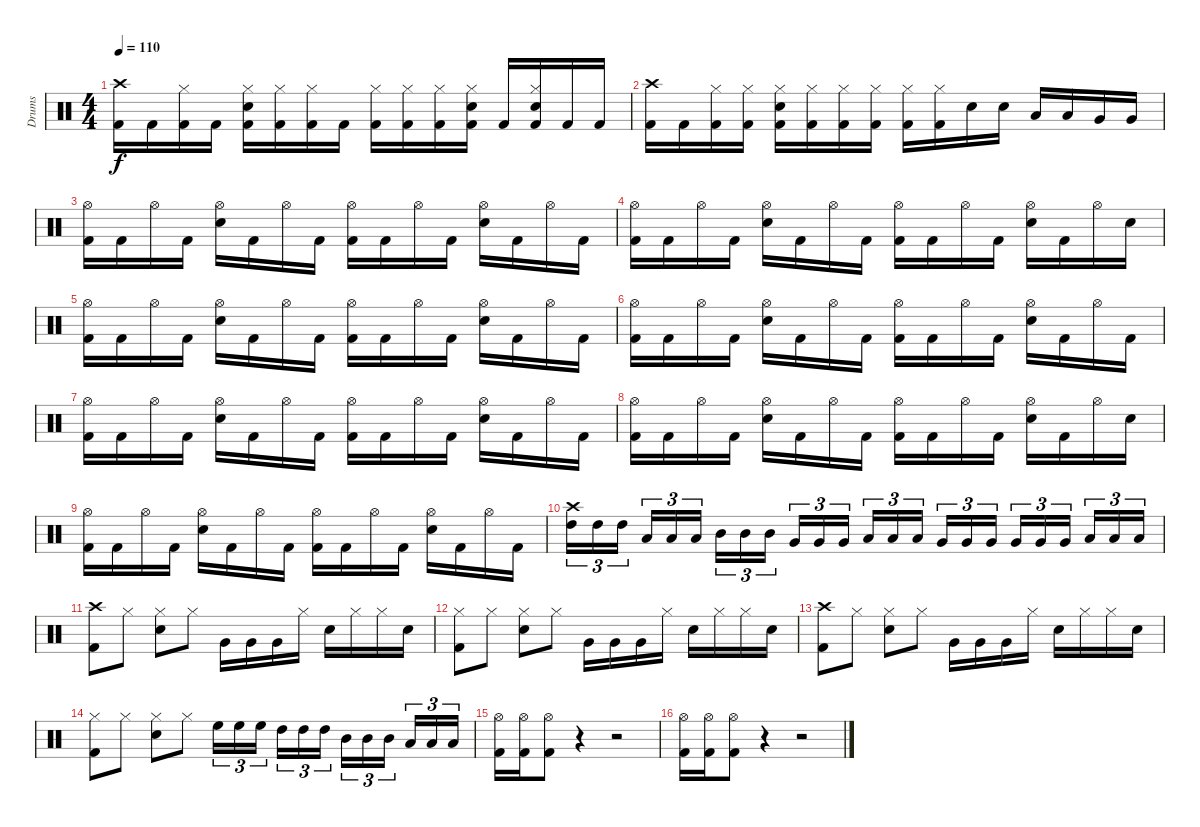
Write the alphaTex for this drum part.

\track ("Drums" "Drums") {instrument percussion}
\staff {score}
\articulation defaults
\ts (4 4)
\tempo 110
\clef neutral
\ks c
("Crash high (hit)" "Kick (hit) 2").16{dy f} "Kick (hit) 2".16 ("Hi-Hat (closed)" "Kick (hit) 2").16 "Kick (hit) 2".16 ("Hi-Hat (closed)" "Electric Snare (hit)" "Kick (hit) 2").16 ("Hi-Hat (closed)" "Kick (hit) 2").16 ("Hi-Hat (closed)" "Kick (hit) 2").16 "Kick (hit) 2".16 ("Hi-Hat (closed)" "Kick (hit) 2").16 ("Hi-Hat (closed)" "Kick (hit) 2").16 ("Hi-Hat (closed)" "Kick (hit) 2").16 ("Hi-Hat (closed)" "Electric Snare (hit)" "Kick (hit) 2").16 "Kick (hit) 2".16 ("Hi-Hat (closed)" "Electric Snare (hit)" "Kick (hit) 2").16 "Kick (hit) 2".16 "Kick (hit) 2".16 |
("Crash high (hit)" "Kick (hit) 2").16 "Kick (hit) 2".16 ("Hi-Hat (closed)" "Kick (hit) 2").16 ("Hi-Hat (closed)" "Kick (hit) 2").16 ("Hi-Hat (closed)" "Electric Snare (hit)" "Kick (hit) 2").16 ("Hi-Hat (closed)" "Kick (hit) 2").16 ("Hi-Hat (closed)" "Kick (hit) 2").16 ("Hi-Hat (closed)" "Kick (hit) 2").16 ("Hi-Hat (closed)" "Kick (hit) 2").16 ("Hi-Hat (closed)" "Kick (hit) 2").16 "Electric Snare (hit)".16 "Electric Snare (hit)".16 "Low Tom (hit)".16 "Low Tom (hit)".16 "Very Low Tom (hit)".16 "Very Low Tom (hit)".16 |
("Hi-Hat (open)" "Kick (hit) 2").16 "Kick (hit) 2".16 "Hi-Hat (open)".16 "Kick (hit) 2".16 ("Hi-Hat (open)" "Electric Snare (hit)").16 "Kick (hit) 2".16 "Hi-Hat (open)".16 "Kick (hit) 2".16 ("Hi-Hat (open)" "Kick (hit) 2").16 "Kick (hit) 2".16 "Hi-Hat (open)".16 "Kick (hit) 2".16 ("Hi-Hat (open)" "Electric Snare (hit)").16 "Kick (hit) 2".16 "Hi-Hat (open)".16 "Kick (hit) 2".16 |
("Hi-Hat (open)" "Kick (hit) 2").16 "Kick (hit) 2".16 "Hi-Hat (open)".16 "Kick (hit) 2".16 ("Hi-Hat (open)" "Electric Snare (hit)").16 "Kick (hit) 2".16 "Hi-Hat (open)".16 "Kick (hit) 2".16 ("Hi-Hat (open)" "Kick (hit) 2").16 "Kick (hit) 2".16 "Hi-Hat (open)".16 "Kick (hit) 2".16 ("Hi-Hat (open)" "Electric Snare (hit)").16 "Kick (hit) 2".16 "Hi-Hat (open)".16 "Electric Snare (hit)".16 |
("Hi-Hat (open)" "Kick (hit) 2").16 "Kick (hit) 2".16 "Hi-Hat (open)".16 "Kick (hit) 2".16 ("Hi-Hat (open)" "Electric Snare (hit)").16 "Kick (hit) 2".16 "Hi-Hat (open)".16 "Kick (hit) 2".16 ("Hi-Hat (open)" "Kick (hit) 2").16 "Kick (hit) 2".16 "Hi-Hat (open)".16 "Kick (hit) 2".16 ("Hi-Hat (open)" "Electric Snare (hit)").16 "Kick (hit) 2".16 "Hi-Hat (open)".16 "Kick (hit) 2".16 |
("Hi-Hat (open)" "Kick (hit) 2").16 "Kick (hit) 2".16 "Hi-Hat (open)".16 "Kick (hit) 2".16 ("Hi-Hat (open)" "Electric Snare (hit)").16 "Kick (hit) 2".16 "Hi-Hat (open)".16 "Kick (hit) 2".16 ("Hi-Hat (open)" "Kick (hit) 2").16 "Kick (hit) 2".16 "Hi-Hat (open)".16 "Kick (hit) 2".16 ("Hi-Hat (open)" "Electric Snare (hit)").16 "Kick (hit) 2".16 "Hi-Hat (open)".16 "Kick (hit) 2".16 |
("Hi-Hat (open)" "Kick (hit) 2").16 "Kick (hit) 2".16 "Hi-Hat (open)".16 "Kick (hit) 2".16 ("Hi-Hat (open)" "Electric Snare (hit)").16 "Kick (hit) 2".16 "Hi-Hat (open)".16 "Kick (hit) 2".16 ("Hi-Hat (open)" "Kick (hit) 2").16 "Kick (hit) 2".16 "Hi-Hat (open)".16 "Kick (hit) 2".16 ("Hi-Hat (open)" "Electric Snare (hit)").16 "Kick (hit) 2".16 "Hi-Hat (open)".16 "Kick (hit) 2".16 |
("Hi-Hat (open)" "Kick (hit) 2").16 "Kick (hit) 2".16 "Hi-Hat (open)".16 "Kick (hit) 2".16 ("Hi-Hat (open)" "Electric Snare (hit)").16 "Kick (hit) 2".16 "Hi-Hat (open)".16 "Kick (hit) 2".16 ("Hi-Hat (open)" "Kick (hit) 2").16 "Kick (hit) 2".16 "Hi-Hat (open)".16 "Kick (hit) 2".16 ("Hi-Hat (open)" "Electric Snare (hit)").16 "Kick (hit) 2".16 "Hi-Hat (open)".16 "Electric Snare (hit)".16 |
("Hi-Hat (open)" "Kick (hit) 2").16 "Kick (hit) 2".16 "Hi-Hat (open)".16 "Kick (hit) 2".16 ("Hi-Hat (open)" "Electric Snare (hit)").16 "Kick (hit) 2".16 "Hi-Hat (open)".16 "Kick (hit) 2".16 ("Hi-Hat (open)" "Kick (hit) 2").16 "Kick (hit) 2".16 "Hi-Hat (open)".16 "Kick (hit) 2".16 ("Hi-Hat (open)" "Electric Snare (hit)").16 "Kick (hit) 2".16 "Hi-Hat (open)".16 "Kick (hit) 2".16 |
("Crash high (hit)" "High Tom (hit)").16{tu (3 2)} "High Tom (hit)".16{tu (3 2)} "High Tom (hit)".16{tu (3 2)} "Low Tom (hit)".16{tu (3 2)} "Low Tom (hit)".16{tu (3 2)} "Low Tom (hit)".16{tu (3 2)} "Mid Tom (hit)".16{tu (3 2)} "Mid Tom (hit)".16{tu (3 2)} "Mid Tom (hit)".16{tu (3 2)} "Very Low Tom (hit)".16{tu (3 2)} "Very Low Tom (hit)".16{tu (3 2)} "Very Low Tom (hit)".16{tu (3 2)} "Low Tom (hit)".16{tu (3 2)} "Low Tom (hit)".16{tu (3 2)} "Low Tom (hit)".16{tu (3 2)} "Very Low Tom (hit)".16{tu (3 2)} "Very Low Tom (hit)".16{tu (3 2)} "Very Low Tom (hit)".16{tu (3 2)} "Very Low Tom (hit)".16{tu (3 2)} "Very Low Tom (hit)".16{tu (3 2)} "Very Low Tom (hit)".16{tu (3 2)} "Low Floor Tom (hit)".16{tu (3 2)} "Low Floor Tom (hit)".16{tu (3 2)} "Low Floor Tom (hit)".16{tu (3 2)} |
("Crash high (hit)" "Kick (hit) 2").8 "Hi-Hat (closed)".8 ("Hi-Hat (closed)" "Electric Snare (hit)").8 "Hi-Hat (closed)".8 "Very Low Tom (hit)".16 "Very Low Tom (hit)".16 "Very Low Tom (hit)".16 "Hi-Hat (closed)".16 "Electric Snare (hit)".16 "Hi-Hat (closed)".16 "Hi-Hat (closed)".16 "Electric Snare (hit)".16 |
("Hi-Hat (closed)" "Kick (hit) 2").8 "Hi-Hat (closed)".8 ("Hi-Hat (closed)" "Electric Snare (hit)").8 "Hi-Hat (closed)".8 "Very Low Tom (hit)".16 "Very Low Tom (hit)".16 "Very Low Tom (hit)".16 "Hi-Hat (closed)".16 "Electric Snare (hit)".16 "Hi-Hat (closed)".16 "Hi-Hat (closed)".16 "Electric Snare (hit)".16 |
("Crash high (hit)" "Kick (hit) 2").8 "Hi-Hat (closed)".8 ("Hi-Hat (closed)" "Electric Snare (hit)").8 "Hi-Hat (closed)".8 "Very Low Tom (hit)".16 "Very Low Tom (hit)".16 "Very Low Tom (hit)".16 "Hi-Hat (closed)".16 "Electric Snare (hit)".16 "Hi-Hat (closed)".16 "Hi-Hat (closed)".16 "Electric Snare (hit)".16 |
("Hi-Hat (closed)" "Kick (hit) 2").8 "Hi-Hat (closed)".8 ("Hi-Hat (closed)" "Electric Snare (hit)").8 "Hi-Hat (closed)".8 "High Floor Tom (hit)".16{tu (3 2)} "High Floor Tom (hit)".16{tu (3 2)} "High Floor Tom (hit)".16{tu (3 2)} "High Tom (hit)".16{tu (3 2)} "High Tom (hit)".16{tu (3 2)} "High Tom (hit)".16{tu (3 2)} "Mid Tom (hit)".16{tu (3 2)} "Mid Tom (hit)".16{tu (3 2)} "Mid Tom (hit)".16{tu (3 2)} "Low Tom (hit)".16{tu (3 2)} "Low Tom (hit)".16{tu (3 2)} "Low Tom (hit)".16{tu (3 2)} |
("Hi-Hat (open)" "Kick (hit) 2").16 ("Hi-Hat (open)" "Kick (hit) 2").16 ("Hi-Hat (open)" "Kick (hit) 2").8 r.4 r.2 |
("Hi-Hat (open)" "Kick (hit) 2").16 ("Hi-Hat (open)" "Kick (hit) 2").16 ("Hi-Hat (open)" "Kick (hit) 2").8 r.4 r.2
